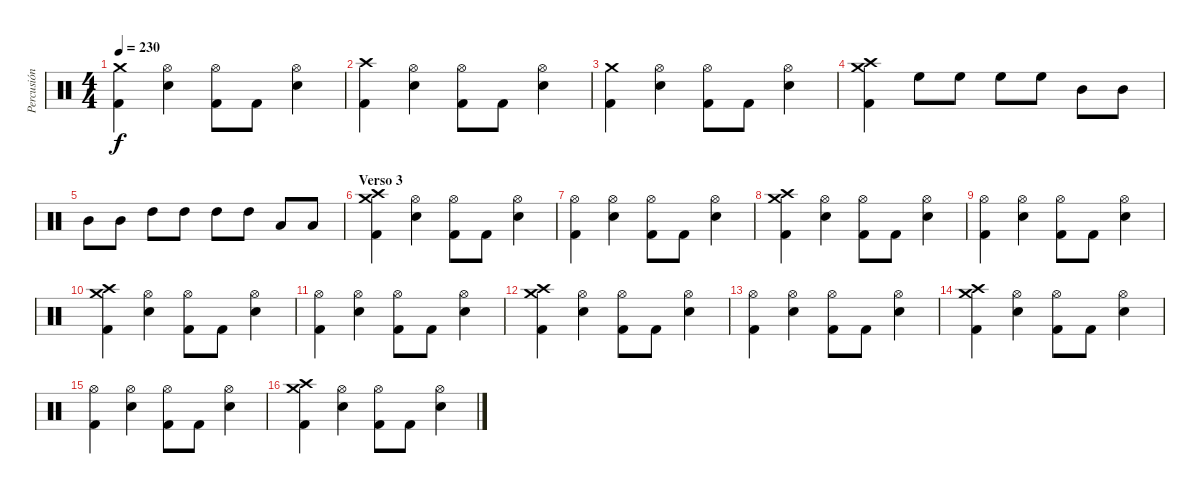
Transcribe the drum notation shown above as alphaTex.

\track ("Percusión" "Percusión") {instrument percussion}
\staff {score}
\articulation defaults
\ts (4 4)
\tempo 230
\clef neutral
\ks c
("Crash medium (hit)" "Kick (hit) 2").4{dy f} ("Hi-Hat (open)" "Snare (hit) 2").4 ("Hi-Hat (open)" "Kick (hit) 2").8 "Kick (hit) 2".8 ("Hi-Hat (open)" "Snare (hit) 2").4 |
("Crash high (hit)" "Kick (hit) 2").4 ("Hi-Hat (open)" "Snare (hit) 2").4 ("Hi-Hat (open)" "Kick (hit) 2").8 "Kick (hit) 2".8 ("Hi-Hat (open)" "Snare (hit) 2").4 |
("Crash medium (hit)" "Kick (hit) 2").4 ("Hi-Hat (open)" "Snare (hit) 2").4 ("Hi-Hat (open)" "Kick (hit) 2").8 "Kick (hit) 2".8 ("Hi-Hat (open)" "Snare (hit) 2").4 |
("Crash medium (hit)" "Crash high (hit)" "Kick (hit) 2").4 "High Floor Tom (hit)".8 "High Floor Tom (hit)".8 "High Floor Tom (hit)".8 "High Floor Tom (hit)".8 "Mid Tom (hit)".8 "Mid Tom (hit)".8 |
"Mid Tom (hit)".8 "Mid Tom (hit)".8 "High Tom (hit)".8 "High Tom (hit)".8 "High Tom (hit)".8 "High Tom (hit)".8 "Low Tom (hit)".8 "Low Tom (hit)".8 |
\section ("" "Verso 3")
("Crash medium (hit)" "Crash high (hit)" "Kick (hit) 2").4 ("Hi-Hat (open)" "Snare (hit) 2").4 ("Hi-Hat (open)" "Kick (hit) 2").8 "Kick (hit) 2".8 ("Hi-Hat (open)" "Snare (hit) 2").4 |
("Hi-Hat (open)" "Kick (hit) 2").4 ("Hi-Hat (open)" "Snare (hit) 2").4 ("Hi-Hat (open)" "Kick (hit) 2").8 "Kick (hit) 2".8 ("Hi-Hat (open)" "Snare (hit) 2").4 |
("Crash medium (hit)" "Crash high (hit)" "Kick (hit) 2").4 ("Hi-Hat (open)" "Snare (hit) 2").4 ("Hi-Hat (open)" "Kick (hit) 2").8 "Kick (hit) 2".8 ("Hi-Hat (open)" "Snare (hit) 2").4 |
("Hi-Hat (open)" "Kick (hit) 2").4 ("Hi-Hat (open)" "Snare (hit) 2").4 ("Hi-Hat (open)" "Kick (hit) 2").8 "Kick (hit) 2".8 ("Hi-Hat (open)" "Snare (hit) 2").4 |
("Crash medium (hit)" "Crash high (hit)" "Kick (hit) 2").4 ("Hi-Hat (open)" "Snare (hit) 2").4 ("Hi-Hat (open)" "Kick (hit) 2").8 "Kick (hit) 2".8 ("Hi-Hat (open)" "Snare (hit) 2").4 |
("Hi-Hat (open)" "Kick (hit) 2").4 ("Hi-Hat (open)" "Snare (hit) 2").4 ("Hi-Hat (open)" "Kick (hit) 2").8 "Kick (hit) 2".8 ("Hi-Hat (open)" "Snare (hit) 2").4 |
("Crash medium (hit)" "Crash high (hit)" "Kick (hit) 2").4 ("Hi-Hat (open)" "Snare (hit) 2").4 ("Hi-Hat (open)" "Kick (hit) 2").8 "Kick (hit) 2".8 ("Hi-Hat (open)" "Snare (hit) 2").4 |
("Hi-Hat (open)" "Kick (hit) 2").4 ("Hi-Hat (open)" "Snare (hit) 2").4 ("Hi-Hat (open)" "Kick (hit) 2").8 "Kick (hit) 2".8 ("Hi-Hat (open)" "Snare (hit) 2").4 |
("Crash medium (hit)" "Crash high (hit)" "Kick (hit) 2").4 ("Hi-Hat (open)" "Snare (hit) 2").4 ("Hi-Hat (open)" "Kick (hit) 2").8 "Kick (hit) 2".8 ("Hi-Hat (open)" "Snare (hit) 2").4 |
("Hi-Hat (open)" "Kick (hit) 2").4 ("Hi-Hat (open)" "Snare (hit) 2").4 ("Hi-Hat (open)" "Kick (hit) 2").8 "Kick (hit) 2".8 ("Hi-Hat (open)" "Snare (hit) 2").4 |
("Crash medium (hit)" "Crash high (hit)" "Kick (hit) 2").4 ("Hi-Hat (open)" "Snare (hit) 2").4 ("Hi-Hat (open)" "Kick (hit) 2").8 "Kick (hit) 2".8 ("Hi-Hat (open)" "Snare (hit) 2").4
